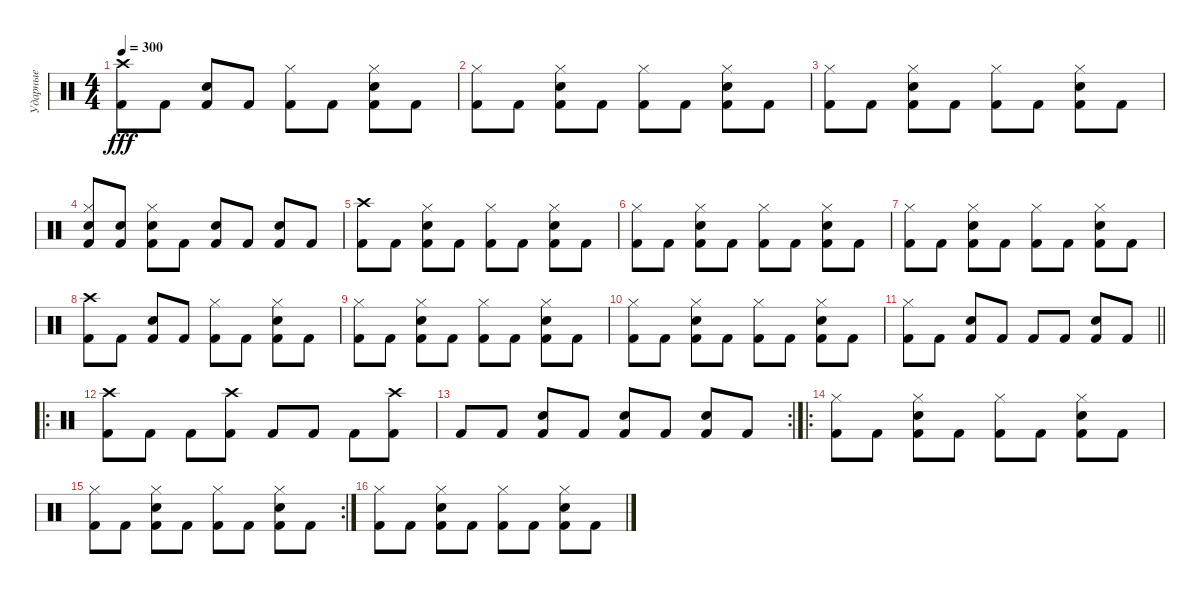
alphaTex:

\track ("Ударные" "Ударные") {instrument percussion}
\staff {score}
\articulation defaults
\ts (4 4)
\tempo 300
\clef neutral
\ks c
("Kick (hit) 2" "Crash high (hit)").8{dy fff} "Kick (hit) 2".8 ("Kick (hit) 2" "Snare (hit) 2").8 "Kick (hit) 2".8 ("Kick (hit) 2" "Hi-Hat (closed)").8 "Kick (hit) 2".8 ("Kick (hit) 2" "Snare (hit) 2" "Hi-Hat (closed)").8 "Kick (hit) 2".8 |
("Kick (hit) 2" "Hi-Hat (closed)").8 "Kick (hit) 2".8 ("Kick (hit) 2" "Snare (hit) 2" "Hi-Hat (closed)").8 "Kick (hit) 2".8 ("Kick (hit) 2" "Hi-Hat (closed)").8 "Kick (hit) 2".8 ("Kick (hit) 2" "Snare (hit) 2" "Hi-Hat (closed)").8 "Kick (hit) 2".8 |
("Kick (hit) 2" "Hi-Hat (closed)").8 "Kick (hit) 2".8 ("Kick (hit) 2" "Snare (hit) 2" "Hi-Hat (closed)").8 "Kick (hit) 2".8 ("Kick (hit) 2" "Hi-Hat (closed)").8 "Kick (hit) 2".8 ("Kick (hit) 2" "Snare (hit) 2" "Hi-Hat (closed)").8 "Kick (hit) 2".8 |
("Kick (hit) 2" "Electric Snare (hit)" "Hi-Hat (closed)").8 ("Kick (hit) 2" "Electric Snare (hit)").8 ("Kick (hit) 2" "Snare (hit) 2" "Hi-Hat (closed)").8 "Kick (hit) 2".8 ("Kick (hit) 2" "Snare (hit) 2").8 "Kick (hit) 2".8 ("Kick (hit) 2" "Snare (hit) 2").8 "Kick (hit) 2".8 |
("Kick (hit) 2" "Crash high (hit)").8 "Kick (hit) 2".8 ("Kick (hit) 2" "Snare (hit) 2" "Hi-Hat (closed)").8 "Kick (hit) 2".8 ("Kick (hit) 2" "Hi-Hat (closed)").8 "Kick (hit) 2".8 ("Kick (hit) 2" "Snare (hit) 2" "Hi-Hat (closed)").8 "Kick (hit) 2".8 |
("Kick (hit) 2" "Hi-Hat (closed)").8 "Kick (hit) 2".8 ("Kick (hit) 2" "Snare (hit) 2" "Hi-Hat (closed)").8 "Kick (hit) 2".8 ("Kick (hit) 2" "Hi-Hat (closed)").8 "Kick (hit) 2".8 ("Kick (hit) 2" "Snare (hit) 2" "Hi-Hat (closed)").8 "Kick (hit) 2".8 |
("Kick (hit) 2" "Hi-Hat (closed)").8 "Kick (hit) 2".8 ("Kick (hit) 2" "Snare (hit) 2" "Hi-Hat (closed)").8 "Kick (hit) 2".8 ("Kick (hit) 2" "Hi-Hat (closed)").8 "Kick (hit) 2".8 ("Kick (hit) 2" "Snare (hit) 2" "Hi-Hat (closed)").8 "Kick (hit) 2".8 |
("Kick (hit) 2" "Crash high (hit)").8 "Kick (hit) 2".8 ("Kick (hit) 2" "Snare (hit) 2").8 "Kick (hit) 2".8 ("Kick (hit) 2" "Hi-Hat (closed)").8 "Kick (hit) 2".8 ("Kick (hit) 2" "Snare (hit) 2" "Hi-Hat (closed)").8 "Kick (hit) 2".8 |
("Kick (hit) 2" "Hi-Hat (closed)").8 "Kick (hit) 2".8 ("Kick (hit) 2" "Snare (hit) 2" "Hi-Hat (closed)").8 "Kick (hit) 2".8 ("Kick (hit) 2" "Hi-Hat (closed)").8 "Kick (hit) 2".8 ("Kick (hit) 2" "Snare (hit) 2" "Hi-Hat (closed)").8 "Kick (hit) 2".8 |
("Kick (hit) 2" "Hi-Hat (closed)").8 "Kick (hit) 2".8 ("Kick (hit) 2" "Snare (hit) 2" "Hi-Hat (closed)").8 "Kick (hit) 2".8 ("Kick (hit) 2" "Hi-Hat (closed)").8 "Kick (hit) 2".8 ("Kick (hit) 2" "Snare (hit) 2" "Hi-Hat (closed)").8 "Kick (hit) 2".8 |
\barLineRight lightlight
("Kick (hit) 2" "Hi-Hat (closed)").8 "Kick (hit) 2".8 ("Kick (hit) 2" "Snare (hit) 2").8 "Kick (hit) 2".8 "Kick (hit) 2".8 "Kick (hit) 2".8 ("Kick (hit) 2" "Snare (hit) 2").8 "Kick (hit) 2".8 |
\ro
("Kick (hit) 2" "Crash high (hit)").8 "Kick (hit) 2".8 "Kick (hit) 2".8 ("Kick (hit) 2" "Crash high (hit)").8 "Kick (hit) 2".8 "Kick (hit) 2".8 "Kick (hit) 2".8 ("Kick (hit) 2" "Crash high (hit)").8 |
\rc 2 "Kick (hit) 2".8 "Kick (hit) 2".8
("Kick (hit) 2" "Snare (hit) 2").8 "Kick (hit) 2".8 ("Kick (hit) 2" "Snare (hit) 2").8 "Kick (hit) 2".8 ("Kick (hit) 2" "Snare (hit) 2").8 "Kick (hit) 2".8 |
\ro
("Kick (hit) 2" "Hi-Hat (closed)").8 "Kick (hit) 2".8 ("Kick (hit) 2" "Snare (hit) 2" "Hi-Hat (closed)").8 "Kick (hit) 2".8 ("Kick (hit) 2" "Hi-Hat (closed)").8 "Kick (hit) 2".8 ("Kick (hit) 2" "Snare (hit) 2" "Hi-Hat (closed)").8 "Kick (hit) 2".8 |
\rc 2
("Kick (hit) 2" "Hi-Hat (closed)").8 "Kick (hit) 2".8 ("Kick (hit) 2" "Snare (hit) 2" "Hi-Hat (closed)").8 "Kick (hit) 2".8 ("Kick (hit) 2" "Hi-Hat (closed)").8 "Kick (hit) 2".8 ("Kick (hit) 2" "Snare (hit) 2" "Hi-Hat (closed)").8 "Kick (hit) 2".8 |
("Kick (hit) 2" "Hi-Hat (closed)").8 "Kick (hit) 2".8 ("Kick (hit) 2" "Snare (hit) 2" "Hi-Hat (closed)").8 "Kick (hit) 2".8 ("Kick (hit) 2" "Hi-Hat (closed)").8 "Kick (hit) 2".8 ("Kick (hit) 2" "Snare (hit) 2" "Hi-Hat (closed)").8 "Kick (hit) 2".8
